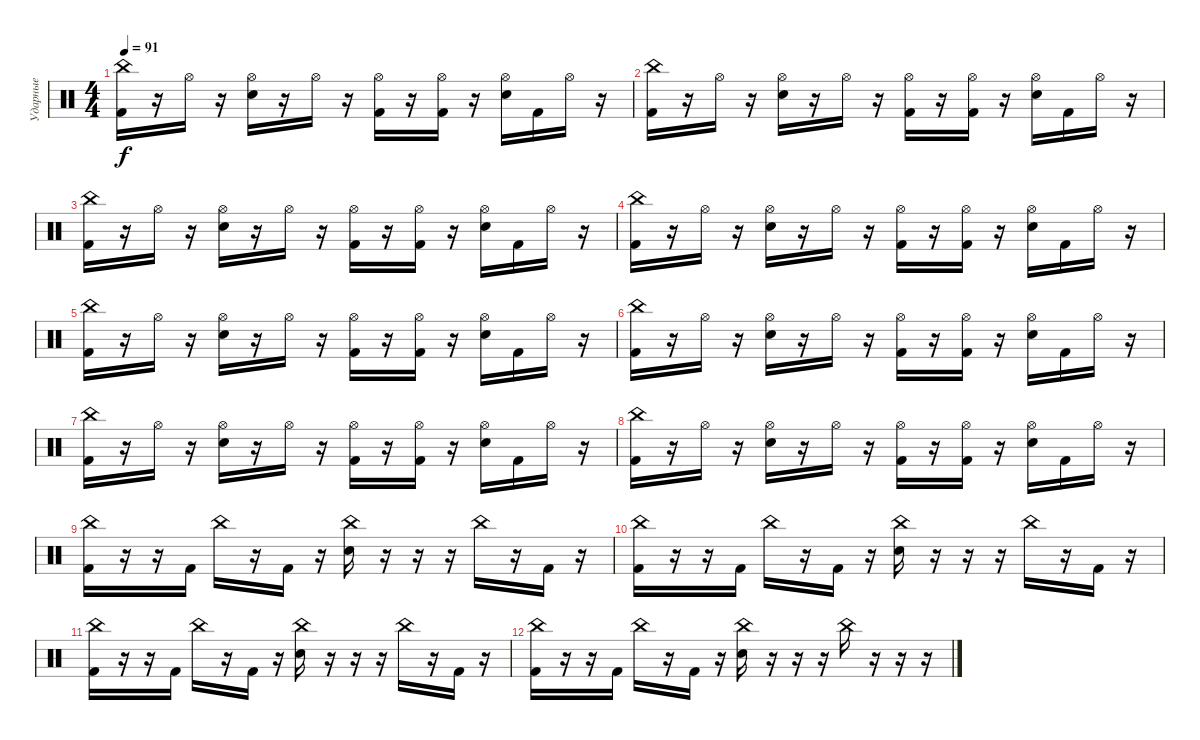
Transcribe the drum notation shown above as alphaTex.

\track ("Ударные" "Ударные") {instrument percussion}
\staff {score}
\articulation defaults
\ts (4 4)
\tempo 91
\clef neutral
\ks c
("China (hit)" "Kick (hit) 2").16{dy f} r.16 "Hi-Hat (open)".16 r.16 ("Hi-Hat (open)" "Snare (hit) 2").16 r.16 "Hi-Hat (open)".16 r.16 ("Hi-Hat (open)" "Kick (hit) 2").16 r.16 ("Hi-Hat (open)" "Kick (hit) 2").16 r.16 ("Hi-Hat (open)" "Snare (hit) 2").16 "Kick (hit) 2".16 "Hi-Hat (open)".16 r.16 |
("China (hit)" "Kick (hit) 2").16 r.16 "Hi-Hat (open)".16 r.16 ("Hi-Hat (open)" "Snare (hit) 2").16 r.16 "Hi-Hat (open)".16 r.16 ("Hi-Hat (open)" "Kick (hit) 2").16 r.16 ("Hi-Hat (open)" "Kick (hit) 2").16 r.16 ("Hi-Hat (open)" "Snare (hit) 2").16 "Kick (hit) 2".16 "Hi-Hat (open)".16 r.16 |
("China (hit)" "Kick (hit) 2").16 r.16 "Hi-Hat (open)".16 r.16 ("Hi-Hat (open)" "Snare (hit) 2").16 r.16 "Hi-Hat (open)".16 r.16 ("Hi-Hat (open)" "Kick (hit) 2").16 r.16 ("Hi-Hat (open)" "Kick (hit) 2").16 r.16 ("Hi-Hat (open)" "Snare (hit) 2").16 "Kick (hit) 2".16 "Hi-Hat (open)".16 r.16 |
("China (hit)" "Kick (hit) 2").16 r.16 "Hi-Hat (open)".16 r.16 ("Hi-Hat (open)" "Snare (hit) 2").16 r.16 "Hi-Hat (open)".16 r.16 ("Hi-Hat (open)" "Kick (hit) 2").16 r.16 ("Hi-Hat (open)" "Kick (hit) 2").16 r.16 ("Hi-Hat (open)" "Snare (hit) 2").16 "Kick (hit) 2".16 "Hi-Hat (open)".16 r.16 |
("China (hit)" "Kick (hit) 2").16 r.16 "Hi-Hat (open)".16 r.16 ("Hi-Hat (open)" "Snare (hit) 2").16 r.16 "Hi-Hat (open)".16 r.16 ("Hi-Hat (open)" "Kick (hit) 2").16 r.16 ("Hi-Hat (open)" "Kick (hit) 2").16 r.16 ("Hi-Hat (open)" "Snare (hit) 2").16 "Kick (hit) 2".16 "Hi-Hat (open)".16 r.16 |
("China (hit)" "Kick (hit) 2").16 r.16 "Hi-Hat (open)".16 r.16 ("Hi-Hat (open)" "Snare (hit) 2").16 r.16 "Hi-Hat (open)".16 r.16 ("Hi-Hat (open)" "Kick (hit) 2").16 r.16 ("Hi-Hat (open)" "Kick (hit) 2").16 r.16 ("Hi-Hat (open)" "Snare (hit) 2").16 "Kick (hit) 2".16 "Hi-Hat (open)".16 r.16 |
("China (hit)" "Kick (hit) 2").16 r.16 "Hi-Hat (open)".16 r.16 ("Hi-Hat (open)" "Snare (hit) 2").16 r.16 "Hi-Hat (open)".16 r.16 ("Hi-Hat (open)" "Kick (hit) 2").16 r.16 ("Hi-Hat (open)" "Kick (hit) 2").16 r.16 ("Hi-Hat (open)" "Snare (hit) 2").16 "Kick (hit) 2".16 "Hi-Hat (open)".16 r.16 |
("China (hit)" "Kick (hit) 2").16 r.16 "Hi-Hat (open)".16 r.16 ("Hi-Hat (open)" "Snare (hit) 2").16 r.16 "Hi-Hat (open)".16 r.16 ("Hi-Hat (open)" "Kick (hit) 2").16 r.16 ("Hi-Hat (open)" "Kick (hit) 2").16 r.16 ("Hi-Hat (open)" "Snare (hit) 2").16 "Kick (hit) 2".16 "Hi-Hat (open)".16 r.16 |
("China (hit)" "Kick (hit) 2").16 r.16 r.16 "Kick (hit) 2".16 "China (hit)".16 r.16 "Kick (hit) 2".16 r.16 ("China (hit)" "Snare (hit) 2").16 r.16 r.16 r.16 "China (hit)".16 r.16 "Kick (hit) 2".16 r.16 |
("China (hit)" "Kick (hit) 2").16 r.16 r.16 "Kick (hit) 2".16 "China (hit)".16 r.16 "Kick (hit) 2".16 r.16 ("China (hit)" "Snare (hit) 2").16 r.16 r.16 r.16 "China (hit)".16 r.16 "Kick (hit) 2".16 r.16 |
("China (hit)" "Kick (hit) 2").16 r.16 r.16 "Kick (hit) 2".16 "China (hit)".16 r.16 "Kick (hit) 2".16 r.16 ("China (hit)" "Snare (hit) 2").16 r.16 r.16 r.16 "China (hit)".16 r.16 "Kick (hit) 2".16 r.16 |
("China (hit)" "Kick (hit) 2").16 r.16 r.16 "Kick (hit) 2".16 "China (hit)".16 r.16 "Kick (hit) 2".16 r.16 ("China (hit)" "Snare (hit) 2").16 r.16 r.16 r.16 "China (hit)".16 r.16 r.16 r.16
